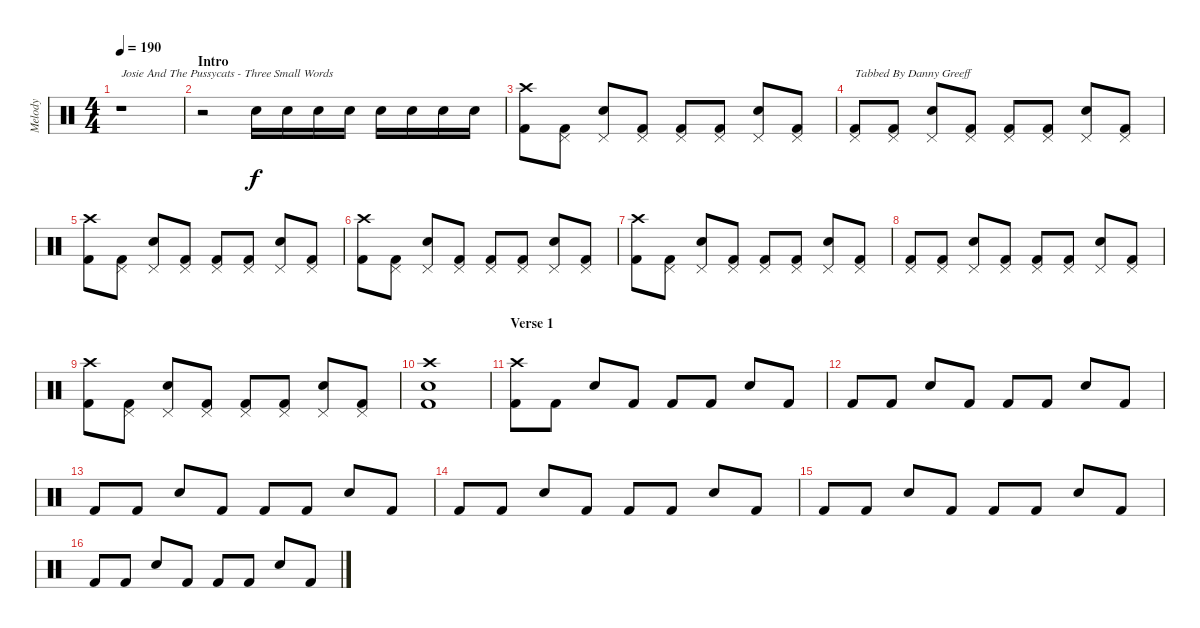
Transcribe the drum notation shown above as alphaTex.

\track ("Melody" "Melody") {instrument percussion}
\staff {score}
\articulation defaults
\ts (4 4)
\tempo 190
\clef neutral
\ks c
r.1{txt "Josie And The Pussycats - Three Small Words" dy f} |
\section ("" "Intro")
r.2 "Snare (hit) 2".16 "Snare (hit) 2".16 "Snare (hit) 2".16 "Snare (hit) 2".16 "Snare (hit) 2".16 "Snare (hit) 2".16 "Snare (hit) 2".16 "Snare (hit) 2".16 |
("Crash high (hit)" "Kick (hit) 2").8 ("Pedal Hi-Hat (hit)" "Kick (hit) 2").8 ("Pedal Hi-Hat (hit)" "Snare (hit) 2").8 ("Pedal Hi-Hat (hit)" "Kick (hit) 2").8 ("Pedal Hi-Hat (hit)" "Kick (hit) 2").8 ("Pedal Hi-Hat (hit)" "Kick (hit) 2").8 ("Pedal Hi-Hat (hit)" "Snare (hit) 2").8 ("Pedal Hi-Hat (hit)" "Kick (hit) 2").8 |
("Pedal Hi-Hat (hit)" "Kick (hit) 2").8{txt "Tabbed By Danny Greeff"} ("Pedal Hi-Hat (hit)" "Kick (hit) 2").8 ("Pedal Hi-Hat (hit)" "Snare (hit) 2").8 ("Pedal Hi-Hat (hit)" "Kick (hit) 2").8 ("Pedal Hi-Hat (hit)" "Kick (hit) 2").8 ("Pedal Hi-Hat (hit)" "Kick (hit) 2").8 ("Pedal Hi-Hat (hit)" "Snare (hit) 2").8 ("Pedal Hi-Hat (hit)" "Kick (hit) 2").8 |
("Crash high (hit)" "Kick (hit) 2").8 ("Pedal Hi-Hat (hit)" "Kick (hit) 2").8 ("Pedal Hi-Hat (hit)" "Snare (hit) 2").8 ("Pedal Hi-Hat (hit)" "Kick (hit) 2").8 ("Pedal Hi-Hat (hit)" "Kick (hit) 2").8 ("Pedal Hi-Hat (hit)" "Kick (hit) 2").8 ("Pedal Hi-Hat (hit)" "Snare (hit) 2").8 ("Pedal Hi-Hat (hit)" "Kick (hit) 2").8 |
("Crash high (hit)" "Kick (hit) 2").8 ("Pedal Hi-Hat (hit)" "Kick (hit) 2").8 ("Pedal Hi-Hat (hit)" "Snare (hit) 2").8 ("Pedal Hi-Hat (hit)" "Kick (hit) 2").8 ("Pedal Hi-Hat (hit)" "Kick (hit) 2").8 ("Pedal Hi-Hat (hit)" "Kick (hit) 2").8 ("Pedal Hi-Hat (hit)" "Snare (hit) 2").8 ("Pedal Hi-Hat (hit)" "Kick (hit) 2").8 |
("Crash high (hit)" "Kick (hit) 2").8 ("Pedal Hi-Hat (hit)" "Kick (hit) 2").8 ("Pedal Hi-Hat (hit)" "Snare (hit) 2").8 ("Pedal Hi-Hat (hit)" "Kick (hit) 2").8 ("Pedal Hi-Hat (hit)" "Kick (hit) 2").8 ("Pedal Hi-Hat (hit)" "Kick (hit) 2").8 ("Pedal Hi-Hat (hit)" "Snare (hit) 2").8 ("Pedal Hi-Hat (hit)" "Kick (hit) 2").8 |
("Pedal Hi-Hat (hit)" "Kick (hit) 2").8 ("Pedal Hi-Hat (hit)" "Kick (hit) 2").8 ("Pedal Hi-Hat (hit)" "Snare (hit) 2").8 ("Pedal Hi-Hat (hit)" "Kick (hit) 2").8 ("Pedal Hi-Hat (hit)" "Kick (hit) 2").8 ("Pedal Hi-Hat (hit)" "Kick (hit) 2").8 ("Pedal Hi-Hat (hit)" "Snare (hit) 2").8 ("Pedal Hi-Hat (hit)" "Kick (hit) 2").8 |
("Crash high (hit)" "Kick (hit) 2").8 ("Pedal Hi-Hat (hit)" "Kick (hit) 2").8 ("Pedal Hi-Hat (hit)" "Snare (hit) 2").8 ("Pedal Hi-Hat (hit)" "Kick (hit) 2").8 ("Pedal Hi-Hat (hit)" "Kick (hit) 2").8 ("Pedal Hi-Hat (hit)" "Kick (hit) 2").8 ("Pedal Hi-Hat (hit)" "Snare (hit) 2").8 ("Pedal Hi-Hat (hit)" "Kick (hit) 2").8 |
("Crash high (hit)" "Snare (hit) 2" "Kick (hit) 2").1 |
\section ("" "Verse 1")
("Crash high (hit)" "Kick (hit) 2").8 "Kick (hit) 2".8 "Snare (hit) 2".8 "Kick (hit) 2".8 "Kick (hit) 2".8 "Kick (hit) 2".8 "Snare (hit) 2".8 "Kick (hit) 2".8 |
"Kick (hit) 2".8 "Kick (hit) 2".8 "Snare (hit) 2".8 "Kick (hit) 2".8 "Kick (hit) 2".8 "Kick (hit) 2".8 "Snare (hit) 2".8 "Kick (hit) 2".8 |
"Kick (hit) 2".8 "Kick (hit) 2".8 "Snare (hit) 2".8 "Kick (hit) 2".8 "Kick (hit) 2".8 "Kick (hit) 2".8 "Snare (hit) 2".8 "Kick (hit) 2".8 |
"Kick (hit) 2".8 "Kick (hit) 2".8 "Snare (hit) 2".8 "Kick (hit) 2".8 "Kick (hit) 2".8 "Kick (hit) 2".8 "Snare (hit) 2".8 "Kick (hit) 2".8 |
"Kick (hit) 2".8 "Kick (hit) 2".8 "Snare (hit) 2".8 "Kick (hit) 2".8 "Kick (hit) 2".8 "Kick (hit) 2".8 "Snare (hit) 2".8 "Kick (hit) 2".8 |
"Kick (hit) 2".8 "Kick (hit) 2".8 "Snare (hit) 2".8 "Kick (hit) 2".8 "Kick (hit) 2".8 "Kick (hit) 2".8 "Snare (hit) 2".8 "Kick (hit) 2".8
